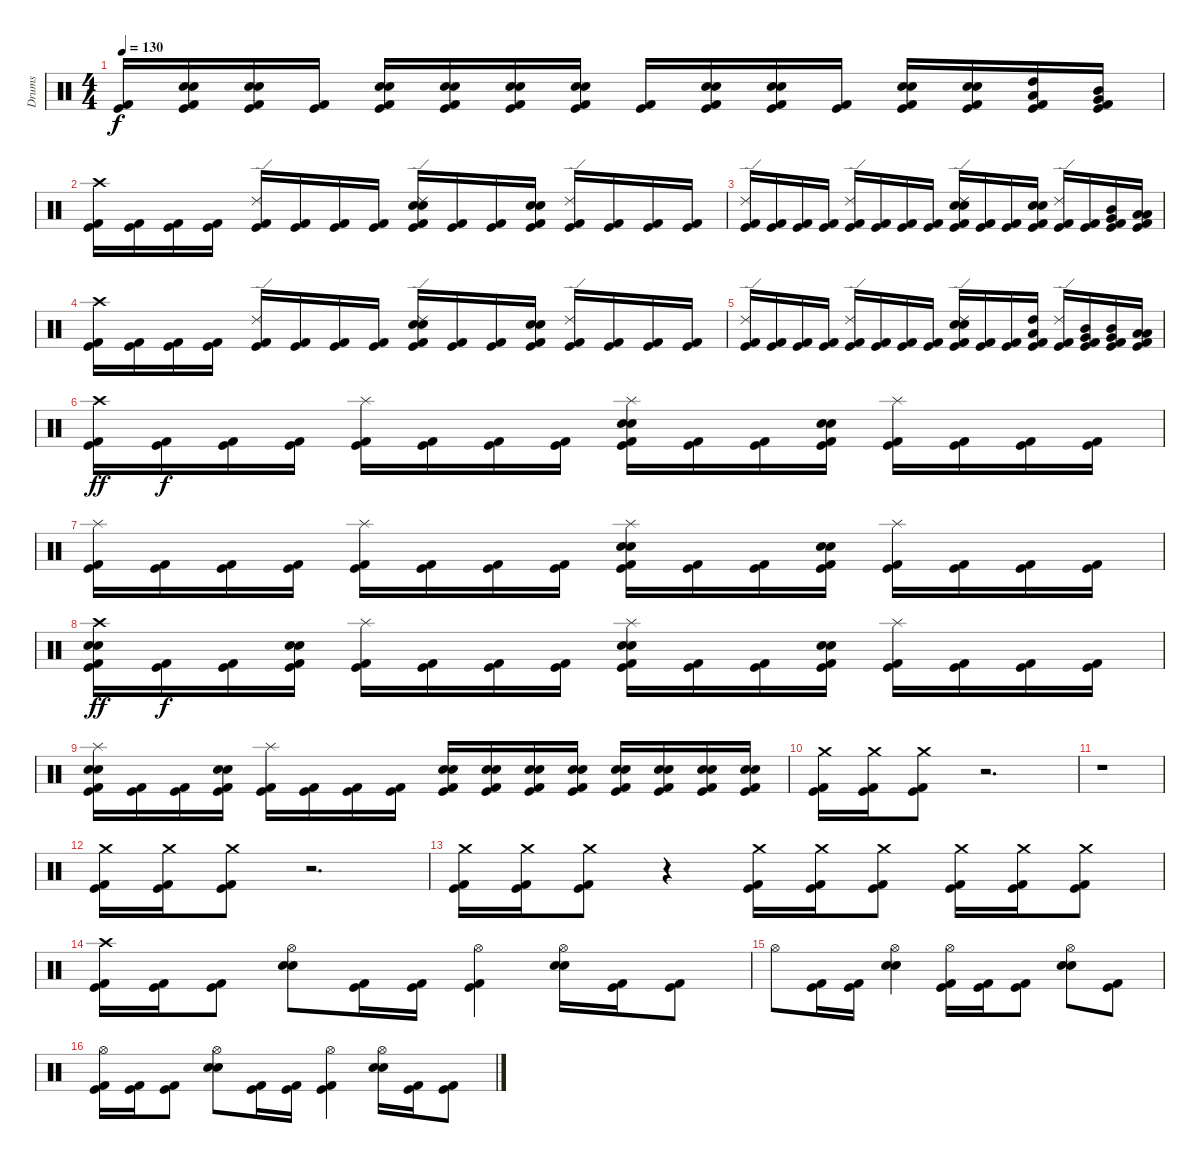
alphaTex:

\track ("Drums" "Drums") {instrument percussion}
\staff {score}
\articulation defaults
\ts (4 4)
\tempo 130
\clef neutral
\ks c
("Kick (hit) 2" "Kick (hit)").16{dy f} ("Electric Snare (hit)" "Snare (hit) 2" "Kick (hit) 2" "Kick (hit)").16 ("Electric Snare (hit)" "Snare (hit) 2" "Kick (hit) 2" "Kick (hit)").16 ("Kick (hit) 2" "Kick (hit)").16 ("Electric Snare (hit)" "Snare (hit) 2" "Kick (hit) 2" "Kick (hit)").16 ("Electric Snare (hit)" "Snare (hit) 2" "Kick (hit) 2" "Kick (hit)").16 ("Electric Snare (hit)" "Snare (hit) 2" "Kick (hit) 2" "Kick (hit)").16 ("Electric Snare (hit)" "Snare (hit) 2" "Kick (hit) 2" "Kick (hit)").16 ("Kick (hit) 2" "Kick (hit)").16 ("Electric Snare (hit)" "Snare (hit) 2" "Kick (hit) 2" "Kick (hit)").16 ("Electric Snare (hit)" "Snare (hit) 2" "Kick (hit) 2" "Kick (hit)").16 ("Kick (hit) 2" "Kick (hit)").16 ("Electric Snare (hit)" "Snare (hit) 2" "Kick (hit) 2" "Kick (hit)").16 ("Electric Snare (hit)" "Snare (hit) 2" "Kick (hit) 2" "Kick (hit)").16 ("High Tom (hit)" "Low Tom (hit)" "Kick (hit) 2" "Kick (hit)").16 ("Mid Tom (hit)" "Very Low Tom (hit)" "Kick (hit) 2" "Kick (hit)").16 |
("Crash high (hit)" "Kick (hit) 2" "Kick (hit)").16 ("Kick (hit) 2" "Kick (hit)").16 ("Kick (hit) 2" "Kick (hit)").16 ("Kick (hit) 2" "Kick (hit)").16 ("Ride (edge) 2" "Kick (hit) 2" "Kick (hit)").16 ("Kick (hit) 2" "Kick (hit)").16 ("Kick (hit) 2" "Kick (hit)").16 ("Kick (hit) 2" "Kick (hit)").16 ("Ride (edge) 2" "Electric Snare (hit)" "Snare (hit) 2" "Kick (hit) 2" "Kick (hit)").16 ("Kick (hit) 2" "Kick (hit)").16 ("Kick (hit) 2" "Kick (hit)").16 ("Electric Snare (hit)" "Snare (hit) 2" "Kick (hit) 2" "Kick (hit)").16 ("Ride (edge) 2" "Kick (hit) 2" "Kick (hit)").16 ("Kick (hit) 2" "Kick (hit)").16 ("Kick (hit) 2" "Kick (hit)").16 ("Kick (hit) 2" "Kick (hit)").16 |
("Ride (edge) 2" "Kick (hit) 2" "Kick (hit)").16 ("Kick (hit) 2" "Kick (hit)").16 ("Kick (hit) 2" "Kick (hit)").16 ("Kick (hit) 2" "Kick (hit)").16 ("Ride (edge) 2" "Kick (hit) 2" "Kick (hit)").16 ("Kick (hit) 2" "Kick (hit)").16 ("Kick (hit) 2" "Kick (hit)").16 ("Kick (hit) 2" "Kick (hit)").16 ("Ride (edge) 2" "Electric Snare (hit)" "Snare (hit) 2" "Kick (hit) 2" "Kick (hit)").16 ("Kick (hit) 2" "Kick (hit)").16 ("Kick (hit) 2" "Kick (hit)").16 ("Electric Snare (hit)" "Snare (hit) 2" "Kick (hit) 2" "Kick (hit)").16 ("Ride (edge) 2" "Kick (hit) 2" "Kick (hit)").16 ("Kick (hit) 2" "Kick (hit)").16 ("Mid Tom (hit)" "Very Low Tom (hit)" "Kick (hit) 2" "Kick (hit)").16 ("Low Tom (hit)" "Low Floor Tom (hit)" "Kick (hit) 2" "Kick (hit)").16 |
("Crash high (hit)" "Kick (hit) 2" "Kick (hit)").16 ("Kick (hit) 2" "Kick (hit)").16 ("Kick (hit) 2" "Kick (hit)").16 ("Kick (hit) 2" "Kick (hit)").16 ("Ride (edge) 2" "Kick (hit) 2" "Kick (hit)").16 ("Kick (hit) 2" "Kick (hit)").16 ("Kick (hit) 2" "Kick (hit)").16 ("Kick (hit) 2" "Kick (hit)").16 ("Ride (edge) 2" "Electric Snare (hit)" "Snare (hit) 2" "Kick (hit) 2" "Kick (hit)").16 ("Kick (hit) 2" "Kick (hit)").16 ("Kick (hit) 2" "Kick (hit)").16 ("Electric Snare (hit)" "Snare (hit) 2" "Kick (hit) 2" "Kick (hit)").16 ("Ride (edge) 2" "Kick (hit) 2" "Kick (hit)").16 ("Kick (hit) 2" "Kick (hit)").16 ("Kick (hit) 2" "Kick (hit)").16 ("Kick (hit) 2" "Kick (hit)").16 |
("Ride (edge) 2" "Kick (hit) 2" "Kick (hit)").16 ("Kick (hit) 2" "Kick (hit)").16 ("Kick (hit) 2" "Kick (hit)").16 ("Kick (hit) 2" "Kick (hit)").16 ("Ride (edge) 2" "Kick (hit) 2" "Kick (hit)").16 ("Kick (hit) 2" "Kick (hit)").16 ("Kick (hit) 2" "Kick (hit)").16 ("Kick (hit) 2" "Kick (hit)").16 ("Ride (edge) 2" "Electric Snare (hit)" "Snare (hit) 2" "Kick (hit) 2" "Kick (hit)").16 ("Kick (hit) 2" "Kick (hit)").16 ("Kick (hit) 2" "Kick (hit)").16 ("High Tom (hit)" "Low Tom (hit)" "Kick (hit) 2" "Kick (hit)").16 ("Ride (edge) 2" "Kick (hit) 2" "Kick (hit)").16 ("Mid Tom (hit)" "Very Low Tom (hit)" "Kick (hit) 2" "Kick (hit)").16 ("Mid Tom (hit)" "Very Low Tom (hit)" "Kick (hit) 2" "Kick (hit)").16 ("Low Tom (hit)" "Low Floor Tom (hit)" "Kick (hit) 2" "Kick (hit)").16 |
("Crash high (hit)" "Kick (hit) 2" "Kick (hit)").16{dy ff} ("Kick (hit) 2" "Kick (hit)").16{dy f} ("Kick (hit) 2" "Kick (hit)").16 ("Kick (hit) 2" "Kick (hit)").16 ("Splash (hit)" "Kick (hit) 2" "Kick (hit)").16 ("Kick (hit) 2" "Kick (hit)").16 ("Kick (hit) 2" "Kick (hit)").16 ("Kick (hit) 2" "Kick (hit)").16 ("Splash (hit)" "Electric Snare (hit)" "Snare (hit) 2" "Kick (hit) 2" "Kick (hit)").16 ("Kick (hit) 2" "Kick (hit)").16 ("Kick (hit) 2" "Kick (hit)").16 ("Electric Snare (hit)" "Snare (hit) 2" "Kick (hit) 2" "Kick (hit)").16 ("Splash (hit)" "Kick (hit) 2" "Kick (hit)").16 ("Kick (hit) 2" "Kick (hit)").16 ("Kick (hit) 2" "Kick (hit)").16 ("Kick (hit) 2" "Kick (hit)").16 |
("Splash (hit)" "Kick (hit) 2" "Kick (hit)").16 ("Kick (hit) 2" "Kick (hit)").16 ("Kick (hit) 2" "Kick (hit)").16 ("Kick (hit) 2" "Kick (hit)").16 ("Splash (hit)" "Kick (hit) 2" "Kick (hit)").16 ("Kick (hit) 2" "Kick (hit)").16 ("Kick (hit) 2" "Kick (hit)").16 ("Kick (hit) 2" "Kick (hit)").16 ("Splash (hit)" "Electric Snare (hit)" "Snare (hit) 2" "Kick (hit) 2" "Kick (hit)").16 ("Kick (hit) 2" "Kick (hit)").16 ("Kick (hit) 2" "Kick (hit)").16 ("Electric Snare (hit)" "Snare (hit) 2" "Kick (hit) 2" "Kick (hit)").16 ("Splash (hit)" "Kick (hit) 2" "Kick (hit)").16 ("Kick (hit) 2" "Kick (hit)").16 ("Kick (hit) 2" "Kick (hit)").16 ("Kick (hit) 2" "Kick (hit)").16 |
("Crash high (hit)" "Electric Snare (hit)" "Snare (hit) 2" "Kick (hit) 2" "Kick (hit)").16{dy ff} ("Kick (hit) 2" "Kick (hit)").16{dy f} ("Kick (hit) 2" "Kick (hit)").16 ("Electric Snare (hit)" "Snare (hit) 2" "Kick (hit) 2" "Kick (hit)").16 ("Splash (hit)" "Kick (hit) 2" "Kick (hit)").16 ("Kick (hit) 2" "Kick (hit)").16 ("Kick (hit) 2" "Kick (hit)").16 ("Kick (hit) 2" "Kick (hit)").16 ("Splash (hit)" "Electric Snare (hit)" "Snare (hit) 2" "Kick (hit) 2" "Kick (hit)").16 ("Kick (hit) 2" "Kick (hit)").16 ("Kick (hit) 2" "Kick (hit)").16 ("Electric Snare (hit)" "Snare (hit) 2" "Kick (hit) 2" "Kick (hit)").16 ("Splash (hit)" "Kick (hit) 2" "Kick (hit)").16 ("Kick (hit) 2" "Kick (hit)").16 ("Kick (hit) 2" "Kick (hit)").16 ("Kick (hit) 2" "Kick (hit)").16 |
("Splash (hit)" "Electric Snare (hit)" "Snare (hit) 2" "Kick (hit) 2" "Kick (hit)").16 ("Kick (hit) 2" "Kick (hit)").16 ("Kick (hit) 2" "Kick (hit)").16 ("Electric Snare (hit)" "Snare (hit) 2" "Kick (hit) 2" "Kick (hit)").16 ("Splash (hit)" "Kick (hit) 2" "Kick (hit)").16 ("Kick (hit) 2" "Kick (hit)").16 ("Kick (hit) 2" "Kick (hit)").16 ("Kick (hit) 2" "Kick (hit)").16 ("Electric Snare (hit)" "Snare (hit) 2" "Kick (hit) 2" "Kick (hit)").16 ("Electric Snare (hit)" "Snare (hit) 2" "Kick (hit) 2" "Kick (hit)").16 ("Electric Snare (hit)" "Snare (hit) 2" "Kick (hit) 2" "Kick (hit)").16 ("Electric Snare (hit)" "Snare (hit) 2" "Kick (hit) 2" "Kick (hit)").16 ("Electric Snare (hit)" "Snare (hit) 2" "Kick (hit) 2" "Kick (hit)").16 ("Electric Snare (hit)" "Snare (hit) 2" "Kick (hit) 2" "Kick (hit)").16 ("Electric Snare (hit)" "Snare (hit) 2" "Kick (hit) 2" "Kick (hit)").16 ("Electric Snare (hit)" "Snare (hit) 2" "Kick (hit) 2" "Kick (hit)").16 |
("Crash medium (hit)" "Kick (hit) 2" "Kick (hit)").16 ("Crash medium (hit)" "Kick (hit) 2" "Kick (hit)").16 ("Crash medium (hit)" "Kick (hit) 2" "Kick (hit)").8 r.2{d} |
r.1 |
("Crash medium (hit)" "Kick (hit) 2" "Kick (hit)").16 ("Crash medium (hit)" "Kick (hit) 2" "Kick (hit)").16 ("Crash medium (hit)" "Kick (hit) 2" "Kick (hit)").8 r.2{d} |
("Crash medium (hit)" "Kick (hit) 2" "Kick (hit)").16 ("Crash medium (hit)" "Kick (hit) 2" "Kick (hit)").16 ("Crash medium (hit)" "Kick (hit) 2" "Kick (hit)").8 r.4 ("Crash medium (hit)" "Kick (hit) 2" "Kick (hit)").16 ("Crash medium (hit)" "Kick (hit) 2" "Kick (hit)").16 ("Crash medium (hit)" "Kick (hit) 2" "Kick (hit)").8 ("Crash medium (hit)" "Kick (hit) 2" "Kick (hit)").16 ("Crash medium (hit)" "Kick (hit) 2" "Kick (hit)").16 ("Crash medium (hit)" "Kick (hit) 2" "Kick (hit)").8 |
("Crash high (hit)" "Kick (hit) 2" "Kick (hit)").16 ("Kick (hit) 2" "Kick (hit)").16 ("Kick (hit) 2" "Kick (hit)").8 ("Hi-Hat (open)" "Electric Snare (hit)" "Snare (hit) 2").8 ("Kick (hit) 2" "Kick (hit)").16 ("Kick (hit) 2" "Kick (hit)").16 ("Hi-Hat (open)" "Kick (hit) 2" "Kick (hit)").4 ("Hi-Hat (open)" "Electric Snare (hit)" "Snare (hit) 2").16 ("Kick (hit) 2" "Kick (hit)").16 ("Kick (hit) 2" "Kick (hit)").8 |
"Hi-Hat (open)".8 ("Kick (hit) 2" "Kick (hit)").16 ("Kick (hit) 2" "Kick (hit)").16 ("Hi-Hat (open)" "Electric Snare (hit)" "Snare (hit) 2").4 ("Hi-Hat (open)" "Kick (hit) 2" "Kick (hit)").16 ("Kick (hit) 2" "Kick (hit)").16 ("Kick (hit) 2" "Kick (hit)").8 ("Hi-Hat (open)" "Electric Snare (hit)" "Snare (hit) 2").8 ("Kick (hit) 2" "Kick (hit)").8 |
("Hi-Hat (open)" "Kick (hit) 2" "Kick (hit)").16 ("Kick (hit) 2" "Kick (hit)").16 ("Kick (hit) 2" "Kick (hit)").8 ("Hi-Hat (open)" "Electric Snare (hit)" "Snare (hit) 2").8 ("Kick (hit) 2" "Kick (hit)").16 ("Kick (hit) 2" "Kick (hit)").16 ("Hi-Hat (open)" "Kick (hit) 2" "Kick (hit)").4 ("Hi-Hat (open)" "Electric Snare (hit)" "Snare (hit) 2").16 ("Kick (hit) 2" "Kick (hit)").16 ("Kick (hit) 2" "Kick (hit)").8
